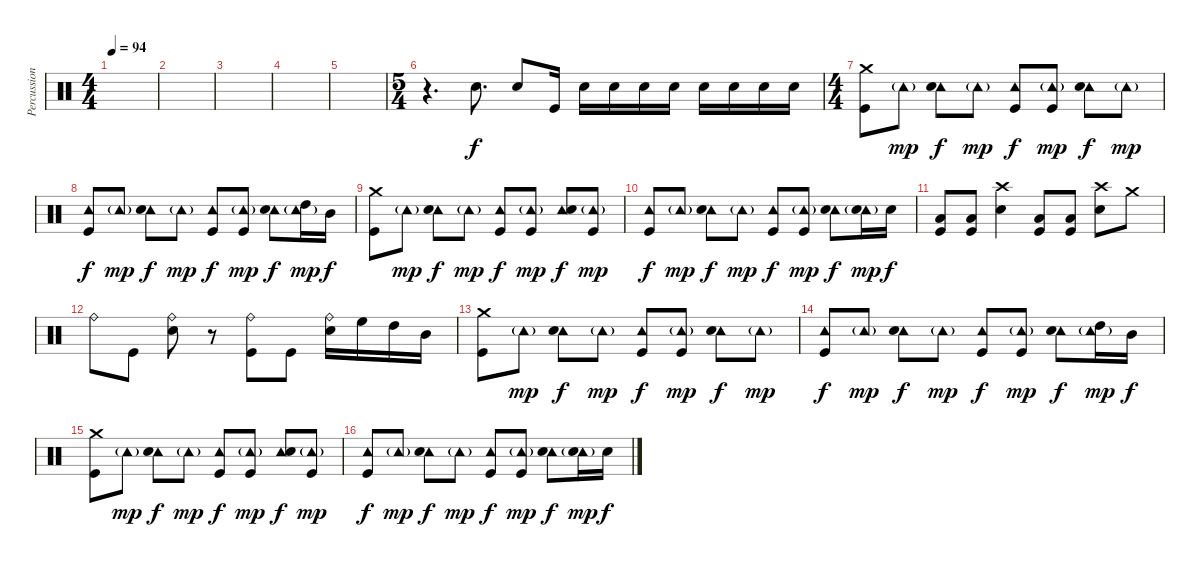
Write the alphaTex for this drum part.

\track ("Percussion" "Percussion") {instrument percussion}
\staff {score}
\articulation defaults
\ts (4 4)
\tempo 94
\clef neutral
\ks c
|
|
|
|
|
\ts (5 4)
r.4{d} "Snare (hit) 2".8{d} "Snare (hit) 2".8 "Kick (hit)".16 "Snare (hit) 2".16 "Snare (hit) 2".16 "Snare (hit) 2".16 "Snare (hit) 2".16 "Snare (hit) 2".16 "Snare (hit) 2".16 "Snare (hit) 2".16 "Snare (hit) 2".16 |
\ts (4 4)
("Crash medium (hit)" "Kick (hit)").8 "Tambourine (hit)"{g}.8{dy mp} ("Tambourine (hit)" "Snare (hit) 2").8{dy f} "Tambourine (hit)"{g}.8{dy mp} ("Tambourine (hit)" "Kick (hit)").8{dy f} ("Tambourine (hit)"{g} "Kick (hit)").8{dy mp} ("Tambourine (hit)" "Snare (hit) 2").8{dy f} "Tambourine (hit)"{g}.8{dy mp} |
("Tambourine (hit)" "Kick (hit)").8{dy f} "Tambourine (hit)"{g}.8{dy mp} ("Tambourine (hit)" "Snare (hit) 2").8{dy f} "Tambourine (hit)"{g}.8{dy mp} ("Tambourine (hit)" "Kick (hit)").8{dy f} ("Tambourine (hit)"{g} "Kick (hit)").8{dy mp} ("Tambourine (hit)" "Snare (hit) 2").8{dy f} ("Tambourine (hit)"{g} "High Tom (hit)").16{dy mp} "Mid Tom (hit)".16{dy f} |
("Crash medium (hit)" "Kick (hit)").8 "Tambourine (hit)"{g}.8{dy mp} ("Tambourine (hit)" "Snare (hit) 2").8{dy f} "Tambourine (hit)"{g}.8{dy mp} ("Tambourine (hit)" "Kick (hit)").8{dy f} ("Tambourine (hit)"{g} "Kick (hit)").8{dy mp} ("Tambourine (hit)" "Snare (hit) 2").8{dy f} ("Tambourine (hit)"{g} "Kick (hit)").8{dy mp} |
("Tambourine (hit)" "Kick (hit)").8{dy f} "Tambourine (hit)"{g}.8{dy mp} ("Tambourine (hit)" "Snare (hit) 2").8{dy f} "Tambourine (hit)"{g}.8{dy mp} ("Tambourine (hit)" "Kick (hit)").8{dy f} ("Tambourine (hit)"{g} "Kick (hit)").8{dy mp} ("Tambourine (hit)" "Snare (hit) 2").8{dy f} ("Tambourine (hit)"{g} "Snare (hit) 2").16{dy mp} "Snare (hit) 2".16{dy f} |
("Low Tom (hit)" "Kick (hit)").8 ("Low Tom (hit)" "Kick (hit)").8 ("Crash high (hit)" "Snare (hit) 2").4 ("Low Tom (hit)" "Kick (hit)").8 ("Low Tom (hit)" "Kick (hit)").8 ("Crash high (hit)" "Snare (hit) 2").8 "Crash medium (hit)".8 |
"Ride (bell)".8 "Kick (hit)".8 ("Ride (bell)" "Snare (hit) 2").8 r.8 ("Ride (bell)" "Kick (hit)").8 "Kick (hit)".8 ("Ride (bell)" "Snare (hit) 2").16 "High Floor Tom (hit)".16 "High Tom (hit)".16 "Mid Tom (hit)".16 |
("Crash medium (hit)" "Kick (hit)").8 "Tambourine (hit)"{g}.8{dy mp} ("Tambourine (hit)" "Snare (hit) 2").8{dy f} "Tambourine (hit)"{g}.8{dy mp} ("Tambourine (hit)" "Kick (hit)").8{dy f} ("Tambourine (hit)"{g} "Kick (hit)").8{dy mp} ("Tambourine (hit)" "Snare (hit) 2").8{dy f} "Tambourine (hit)"{g}.8{dy mp} |
("Tambourine (hit)" "Kick (hit)").8{dy f} "Tambourine (hit)"{g}.8{dy mp} ("Tambourine (hit)" "Snare (hit) 2").8{dy f} "Tambourine (hit)"{g}.8{dy mp} ("Tambourine (hit)" "Kick (hit)").8{dy f} ("Tambourine (hit)"{g} "Kick (hit)").8{dy mp} ("Tambourine (hit)" "Snare (hit) 2").8{dy f} ("Tambourine (hit)"{g} "High Tom (hit)").16{dy mp} "Mid Tom (hit)".16{dy f} |
("Crash medium (hit)" "Kick (hit)").8 "Tambourine (hit)"{g}.8{dy mp} ("Tambourine (hit)" "Snare (hit) 2").8{dy f} "Tambourine (hit)"{g}.8{dy mp} ("Tambourine (hit)" "Kick (hit)").8{dy f} ("Tambourine (hit)"{g} "Kick (hit)").8{dy mp} ("Tambourine (hit)" "Snare (hit) 2").8{dy f} ("Tambourine (hit)"{g} "Kick (hit)").8{dy mp} |
("Tambourine (hit)" "Kick (hit)").8{dy f} "Tambourine (hit)"{g}.8{dy mp} ("Tambourine (hit)" "Snare (hit) 2").8{dy f} "Tambourine (hit)"{g}.8{dy mp} ("Tambourine (hit)" "Kick (hit)").8{dy f} ("Tambourine (hit)"{g} "Kick (hit)").8{dy mp} ("Tambourine (hit)" "Snare (hit) 2").8{dy f} ("Tambourine (hit)"{g} "Snare (hit) 2").16{dy mp} "Snare (hit) 2".16{dy f}
